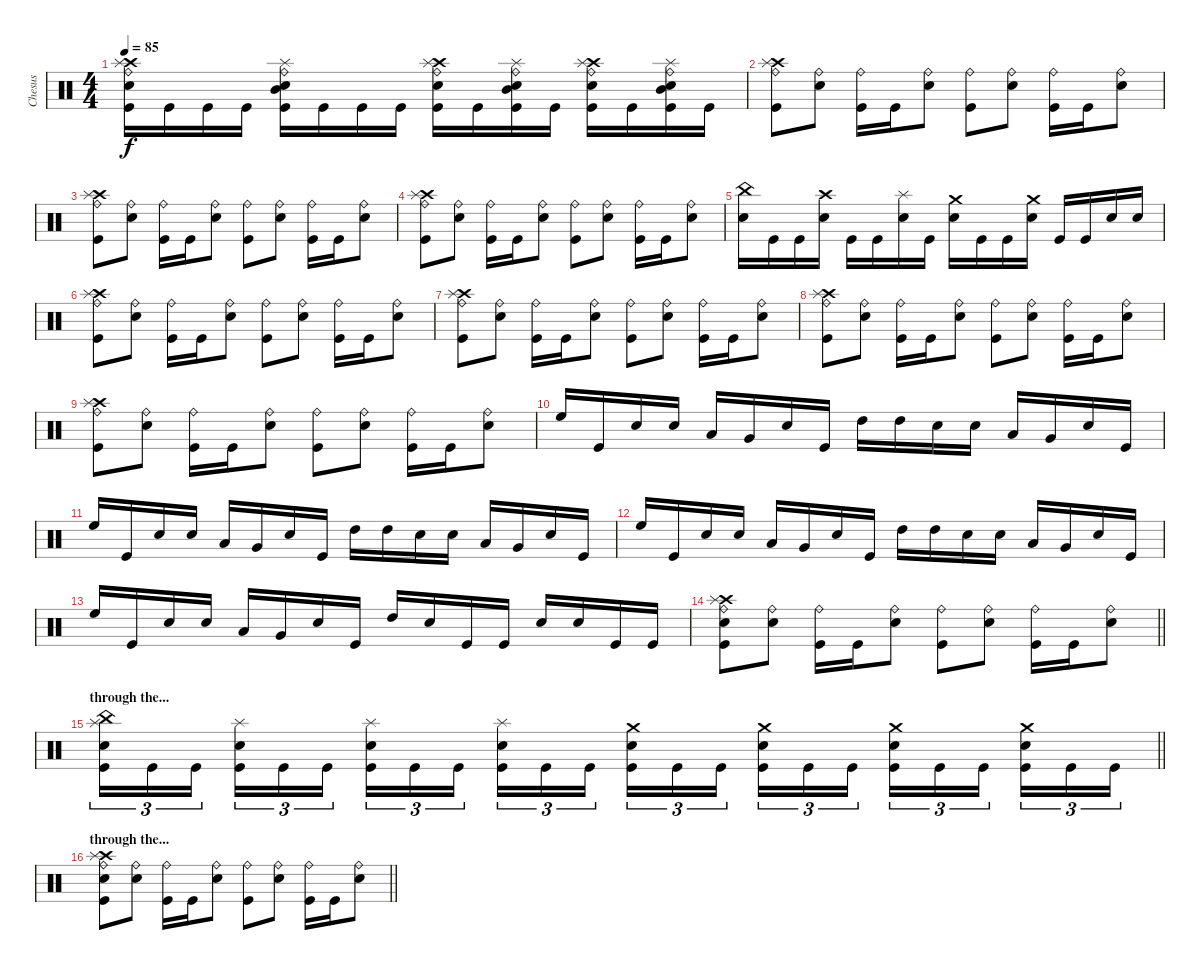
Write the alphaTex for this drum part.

\track ("Chesus" "Chesus") {instrument percussion}
\staff {score}
\articulation defaults
\ts (4 4)
\tempo 85
\clef neutral
\ks c
("Crash high (hit)" "Splash (hit)" "Ride (bell)" "Snare (hit) 2" "Kick (hit)").16{dy f} "Kick (hit)".16 "Kick (hit)".16 "Kick (hit)".16 ("Mid Tom (hit)" "Splash (hit)" "Ride (bell)" "Snare (hit) 2" "Kick (hit)").16 "Kick (hit)".16 "Kick (hit)".16 "Kick (hit)".16 ("Crash high (hit)" "Splash (hit)" "Ride (bell)" "Snare (hit) 2" "Kick (hit)").16 "Kick (hit)".16 ("Mid Tom (hit)" "Splash (hit)" "Ride (bell)" "Snare (hit) 2" "Kick (hit)").16 "Kick (hit)".16 ("Crash high (hit)" "Splash (hit)" "Ride (bell)" "Snare (hit) 2" "Kick (hit)").16 "Kick (hit)".16 ("Mid Tom (hit)" "Splash (hit)" "Ride (bell)" "Snare (hit) 2" "Kick (hit)").16 "Kick (hit)".16 |
("Crash high (hit)" "Splash (hit)" "Ride (bell)" "Kick (hit)").8 ("Ride (bell)" "Snare (hit) 2").8 ("Ride (bell)" "Kick (hit)").16 "Kick (hit)".16 ("Ride (bell)" "Snare (hit) 2").8 ("Ride (bell)" "Kick (hit)").8 ("Ride (bell)" "Snare (hit) 2").8 ("Ride (bell)" "Kick (hit)").16 "Kick (hit)".16 ("Ride (bell)" "Snare (hit) 2").8 |
("Crash high (hit)" "Splash (hit)" "Ride (bell)" "Kick (hit)").8 ("Ride (bell)" "Snare (hit) 2").8 ("Ride (bell)" "Kick (hit)").16 "Kick (hit)".16 ("Ride (bell)" "Snare (hit) 2").8 ("Ride (bell)" "Kick (hit)").8 ("Ride (bell)" "Snare (hit) 2").8 ("Ride (bell)" "Kick (hit)").16 "Kick (hit)".16 ("Ride (bell)" "Snare (hit) 2").8 |
("Crash high (hit)" "Splash (hit)" "Ride (bell)" "Kick (hit)").8 ("Ride (bell)" "Snare (hit) 2").8 ("Ride (bell)" "Kick (hit)").16 "Kick (hit)".16 ("Ride (bell)" "Snare (hit) 2").8 ("Ride (bell)" "Kick (hit)").8 ("Ride (bell)" "Snare (hit) 2").8 ("Ride (bell)" "Kick (hit)").16 "Kick (hit)".16 ("Ride (bell)" "Snare (hit) 2").8 |
("China (hit)" "Snare (hit) 2").16 "Kick (hit)".16 "Kick (hit)".16 ("Crash high (hit)" "Snare (hit) 2").16 "Kick (hit)".16 "Kick (hit)".16 ("Splash (hit)" "Snare (hit) 2").16 "Kick (hit)".16 ("Crash medium (hit)" "Snare (hit) 2").16 "Kick (hit)".16 "Kick (hit)".16 ("Crash medium (hit)" "Snare (hit) 2").16 "Kick (hit)".16 "Kick (hit)".16 "Snare (hit) 2".16 "Snare (hit) 2".16 |
("Crash high (hit)" "Splash (hit)" "Ride (bell)" "Kick (hit)").8 ("Ride (bell)" "Snare (hit) 2").8 ("Ride (bell)" "Kick (hit)").16 "Kick (hit)".16 ("Ride (bell)" "Snare (hit) 2").8 ("Ride (bell)" "Kick (hit)").8 ("Ride (bell)" "Snare (hit) 2").8 ("Ride (bell)" "Kick (hit)").16 "Kick (hit)".16 ("Ride (bell)" "Snare (hit) 2").8 |
("Crash high (hit)" "Splash (hit)" "Ride (bell)" "Kick (hit)").8 ("Ride (bell)" "Snare (hit) 2").8 ("Ride (bell)" "Kick (hit)").16 "Kick (hit)".16 ("Ride (bell)" "Snare (hit) 2").8 ("Ride (bell)" "Kick (hit)").8 ("Ride (bell)" "Snare (hit) 2").8 ("Ride (bell)" "Kick (hit)").16 "Kick (hit)".16 ("Ride (bell)" "Snare (hit) 2").8 |
("Crash high (hit)" "Splash (hit)" "Ride (bell)" "Kick (hit)").8 ("Ride (bell)" "Snare (hit) 2").8 ("Ride (bell)" "Kick (hit)").16 "Kick (hit)".16 ("Ride (bell)" "Snare (hit) 2").8 ("Ride (bell)" "Kick (hit)").8 ("Ride (bell)" "Snare (hit) 2").8 ("Ride (bell)" "Kick (hit)").16 "Kick (hit)".16 ("Ride (bell)" "Snare (hit) 2").8 |
("Crash high (hit)" "Splash (hit)" "Ride (bell)" "Kick (hit)").8 ("Ride (bell)" "Snare (hit) 2").8 ("Ride (bell)" "Kick (hit)").16 "Kick (hit)".16 ("Ride (bell)" "Snare (hit) 2").8 ("Ride (bell)" "Kick (hit)").8 ("Ride (bell)" "Snare (hit) 2").8 ("Ride (bell)" "Kick (hit)").16 "Kick (hit)".16 ("Ride (bell)" "Snare (hit) 2").8 |
"High Floor Tom (hit)".16 "Kick (hit)".16 "Snare (hit) 2".16 "Snare (hit) 2".16 "Low Tom (hit)".16 "Very Low Tom (hit)".16 "Snare (hit) 2".16 "Kick (hit)".16 "High Tom (hit)".16 "High Tom (hit)".16 "Snare (hit) 2".16 "Snare (hit) 2".16 "Low Tom (hit)".16 "Very Low Tom (hit)".16 "Snare (hit) 2".16 "Kick (hit)".16 |
"High Floor Tom (hit)".16 "Kick (hit)".16 "Snare (hit) 2".16 "Snare (hit) 2".16 "Low Tom (hit)".16 "Very Low Tom (hit)".16 "Snare (hit) 2".16 "Kick (hit)".16 "High Tom (hit)".16 "High Tom (hit)".16 "Snare (hit) 2".16 "Snare (hit) 2".16 "Low Tom (hit)".16 "Very Low Tom (hit)".16 "Snare (hit) 2".16 "Kick (hit)".16 |
"High Floor Tom (hit)".16 "Kick (hit)".16 "Snare (hit) 2".16 "Snare (hit) 2".16 "Low Tom (hit)".16 "Very Low Tom (hit)".16 "Snare (hit) 2".16 "Kick (hit)".16 "High Tom (hit)".16 "High Tom (hit)".16 "Snare (hit) 2".16 "Snare (hit) 2".16 "Low Tom (hit)".16 "Very Low Tom (hit)".16 "Snare (hit) 2".16 "Kick (hit)".16 |
"High Floor Tom (hit)".16 "Kick (hit)".16 "Snare (hit) 2".16 "Snare (hit) 2".16 "Low Tom (hit)".16 "Very Low Tom (hit)".16 "Snare (hit) 2".16 "Kick (hit)".16 "High Tom (hit)".16 "Snare (hit) 2".16 "Kick (hit)".16 "Kick (hit)".16 "Snare (hit) 2".16 "Snare (hit) 2".16 "Kick (hit)".16 "Kick (hit)".16 |
\barLineRight lightlight
("Crash high (hit)" "Splash (hit)" "Ride (bell)" "Snare (hit) 2" "Kick (hit)").8 ("Ride (bell)" "Snare (hit) 2").8 ("Ride (bell)" "Kick (hit)").16 "Kick (hit)".16 ("Ride (bell)" "Snare (hit) 2").8 ("Ride (bell)" "Kick (hit)").8 ("Ride (bell)" "Snare (hit) 2").8 ("Ride (bell)" "Kick (hit)").16 "Kick (hit)".16 ("Ride (bell)" "Snare (hit) 2").8 |
\section ("" "through the...")
\barLineRight lightlight
("Splash (hit)" "China (hit)" "Snare (hit) 2" "Kick (hit)").16{tu (3 2)} "Kick (hit)".16{tu (3 2)} "Kick (hit)".16{tu (3 2)} ("Splash (hit)" "Snare (hit) 2" "Kick (hit)").16{tu (3 2)} "Kick (hit)".16{tu (3 2)} "Kick (hit)".16{tu (3 2)} ("Splash (hit)" "Snare (hit) 2" "Kick (hit)").16{tu (3 2)} "Kick (hit)".16{tu (3 2)} "Kick (hit)".16{tu (3 2)} ("Splash (hit)" "Snare (hit) 2" "Kick (hit)").16{tu (3 2)} "Kick (hit)".16{tu (3 2)} "Kick (hit)".16{tu (3 2)} ("Crash medium (hit)" "Snare (hit) 2" "Kick (hit)").16{tu (3 2)} "Kick (hit)".16{tu (3 2)} "Kick (hit)".16{tu (3 2)} ("Crash medium (hit)" "Snare (hit) 2" "Kick (hit)").16{tu (3 2)} "Kick (hit)".16{tu (3 2)} "Kick (hit)".16{tu (3 2)} ("Crash medium (hit)" "Snare (hit) 2" "Kick (hit)").16{tu (3 2)} "Kick (hit)".16{tu (3 2)} "Kick (hit)".16{tu (3 2)} ("Crash medium (hit)" "Snare (hit) 2" "Kick (hit)").16{tu (3 2)} "Kick (hit)".16{tu (3 2)} "Kick (hit)".16{tu (3 2)} |
\section ("" "through the...")
\barLineRight lightlight
("Crash high (hit)" "Splash (hit)" "Ride (bell)" "Snare (hit) 2" "Kick (hit)").8 ("Ride (bell)" "Snare (hit) 2").8 ("Ride (bell)" "Kick (hit)").16 "Kick (hit)".16 ("Ride (bell)" "Snare (hit) 2").8 ("Ride (bell)" "Kick (hit)").8 ("Ride (bell)" "Snare (hit) 2").8 ("Ride (bell)" "Kick (hit)").16 "Kick (hit)".16 ("Ride (bell)" "Snare (hit) 2").8
